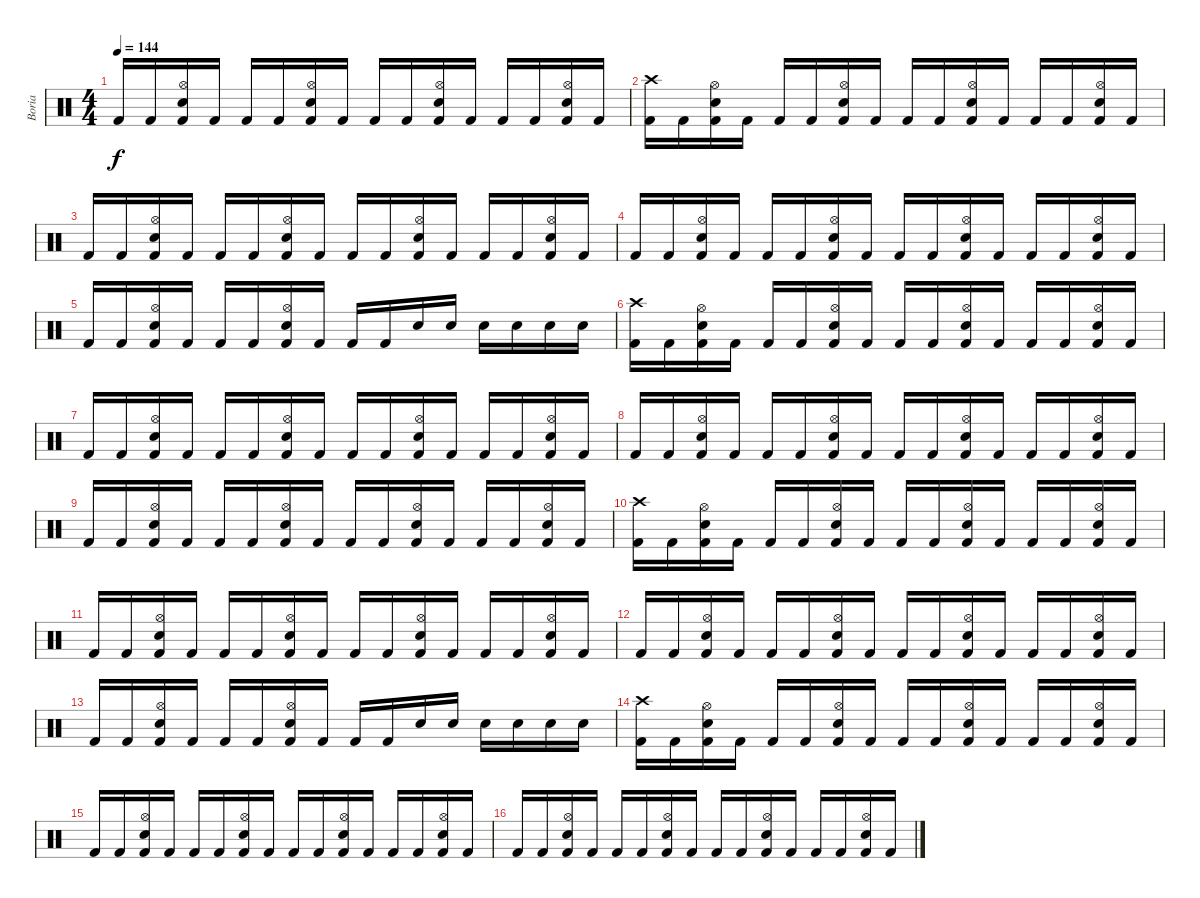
\track ("Boria" "Boria") {instrument percussion}
\staff {score}
\articulation defaults
\ts (4 4)
\tempo 144
\clef neutral
\ks c "Kick (hit) 2".16{dy f} "Kick (hit) 2".16
("Hi-Hat (open)" "Electric Snare (hit)" "Kick (hit) 2").16 "Kick (hit) 2".16 "Kick (hit) 2".16 "Kick (hit) 2".16 ("Hi-Hat (open)" "Electric Snare (hit)" "Kick (hit) 2").16 "Kick (hit) 2".16 "Kick (hit) 2".16 "Kick (hit) 2".16 ("Hi-Hat (open)" "Electric Snare (hit)" "Kick (hit) 2").16 "Kick (hit) 2".16 "Kick (hit) 2".16 "Kick (hit) 2".16 ("Hi-Hat (open)" "Electric Snare (hit)" "Kick (hit) 2").16 "Kick (hit) 2".16 |
("Crash high (hit)" "Kick (hit) 2").16 "Kick (hit) 2".16 ("Hi-Hat (open)" "Electric Snare (hit)" "Kick (hit) 2").16 "Kick (hit) 2".16 "Kick (hit) 2".16 "Kick (hit) 2".16 ("Hi-Hat (open)" "Electric Snare (hit)" "Kick (hit) 2").16 "Kick (hit) 2".16 "Kick (hit) 2".16 "Kick (hit) 2".16 ("Hi-Hat (open)" "Electric Snare (hit)" "Kick (hit) 2").16 "Kick (hit) 2".16 "Kick (hit) 2".16 "Kick (hit) 2".16 ("Hi-Hat (open)" "Electric Snare (hit)" "Kick (hit) 2").16 "Kick (hit) 2".16 |
"Kick (hit) 2".16 "Kick (hit) 2".16 ("Hi-Hat (open)" "Electric Snare (hit)" "Kick (hit) 2").16 "Kick (hit) 2".16 "Kick (hit) 2".16 "Kick (hit) 2".16 ("Hi-Hat (open)" "Electric Snare (hit)" "Kick (hit) 2").16 "Kick (hit) 2".16 "Kick (hit) 2".16 "Kick (hit) 2".16 ("Hi-Hat (open)" "Electric Snare (hit)" "Kick (hit) 2").16 "Kick (hit) 2".16 "Kick (hit) 2".16 "Kick (hit) 2".16 ("Hi-Hat (open)" "Electric Snare (hit)" "Kick (hit) 2").16 "Kick (hit) 2".16 |
"Kick (hit) 2".16 "Kick (hit) 2".16 ("Hi-Hat (open)" "Electric Snare (hit)" "Kick (hit) 2").16 "Kick (hit) 2".16 "Kick (hit) 2".16 "Kick (hit) 2".16 ("Hi-Hat (open)" "Electric Snare (hit)" "Kick (hit) 2").16 "Kick (hit) 2".16 "Kick (hit) 2".16 "Kick (hit) 2".16 ("Hi-Hat (open)" "Electric Snare (hit)" "Kick (hit) 2").16 "Kick (hit) 2".16 "Kick (hit) 2".16 "Kick (hit) 2".16 ("Hi-Hat (open)" "Electric Snare (hit)" "Kick (hit) 2").16 "Kick (hit) 2".16 |
"Kick (hit) 2".16 "Kick (hit) 2".16 ("Hi-Hat (open)" "Electric Snare (hit)" "Kick (hit) 2").16 "Kick (hit) 2".16 "Kick (hit) 2".16 "Kick (hit) 2".16 ("Hi-Hat (open)" "Electric Snare (hit)" "Kick (hit) 2").16 "Kick (hit) 2".16 "Kick (hit) 2".16 "Kick (hit) 2".16 "Electric Snare (hit)".16 "Electric Snare (hit)".16 "Electric Snare (hit)".16 "Electric Snare (hit)".16 "Electric Snare (hit)".16 "Electric Snare (hit)".16 |
("Crash high (hit)" "Kick (hit) 2").16 "Kick (hit) 2".16 ("Hi-Hat (open)" "Electric Snare (hit)" "Kick (hit) 2").16 "Kick (hit) 2".16 "Kick (hit) 2".16 "Kick (hit) 2".16 ("Hi-Hat (open)" "Electric Snare (hit)" "Kick (hit) 2").16 "Kick (hit) 2".16 "Kick (hit) 2".16 "Kick (hit) 2".16 ("Hi-Hat (open)" "Electric Snare (hit)" "Kick (hit) 2").16 "Kick (hit) 2".16 "Kick (hit) 2".16 "Kick (hit) 2".16 ("Hi-Hat (open)" "Electric Snare (hit)" "Kick (hit) 2").16 "Kick (hit) 2".16 |
"Kick (hit) 2".16 "Kick (hit) 2".16 ("Hi-Hat (open)" "Electric Snare (hit)" "Kick (hit) 2").16 "Kick (hit) 2".16 "Kick (hit) 2".16 "Kick (hit) 2".16 ("Hi-Hat (open)" "Electric Snare (hit)" "Kick (hit) 2").16 "Kick (hit) 2".16 "Kick (hit) 2".16 "Kick (hit) 2".16 ("Hi-Hat (open)" "Electric Snare (hit)" "Kick (hit) 2").16 "Kick (hit) 2".16 "Kick (hit) 2".16 "Kick (hit) 2".16 ("Hi-Hat (open)" "Electric Snare (hit)" "Kick (hit) 2").16 "Kick (hit) 2".16 |
"Kick (hit) 2".16 "Kick (hit) 2".16 ("Hi-Hat (open)" "Electric Snare (hit)" "Kick (hit) 2").16 "Kick (hit) 2".16 "Kick (hit) 2".16 "Kick (hit) 2".16 ("Hi-Hat (open)" "Electric Snare (hit)" "Kick (hit) 2").16 "Kick (hit) 2".16 "Kick (hit) 2".16 "Kick (hit) 2".16 ("Hi-Hat (open)" "Electric Snare (hit)" "Kick (hit) 2").16 "Kick (hit) 2".16 "Kick (hit) 2".16 "Kick (hit) 2".16 ("Hi-Hat (open)" "Electric Snare (hit)" "Kick (hit) 2").16 "Kick (hit) 2".16 |
"Kick (hit) 2".16 "Kick (hit) 2".16 ("Hi-Hat (open)" "Electric Snare (hit)" "Kick (hit) 2").16 "Kick (hit) 2".16 "Kick (hit) 2".16 "Kick (hit) 2".16 ("Hi-Hat (open)" "Electric Snare (hit)" "Kick (hit) 2").16 "Kick (hit) 2".16 "Kick (hit) 2".16 "Kick (hit) 2".16 ("Hi-Hat (open)" "Electric Snare (hit)" "Kick (hit) 2").16 "Kick (hit) 2".16 "Kick (hit) 2".16 "Kick (hit) 2".16 ("Hi-Hat (open)" "Electric Snare (hit)" "Kick (hit) 2").16 "Kick (hit) 2".16 |
("Crash high (hit)" "Kick (hit) 2").16 "Kick (hit) 2".16 ("Hi-Hat (open)" "Electric Snare (hit)" "Kick (hit) 2").16 "Kick (hit) 2".16 "Kick (hit) 2".16 "Kick (hit) 2".16 ("Hi-Hat (open)" "Electric Snare (hit)" "Kick (hit) 2").16 "Kick (hit) 2".16 "Kick (hit) 2".16 "Kick (hit) 2".16 ("Hi-Hat (open)" "Electric Snare (hit)" "Kick (hit) 2").16 "Kick (hit) 2".16 "Kick (hit) 2".16 "Kick (hit) 2".16 ("Hi-Hat (open)" "Electric Snare (hit)" "Kick (hit) 2").16 "Kick (hit) 2".16 |
"Kick (hit) 2".16 "Kick (hit) 2".16 ("Hi-Hat (open)" "Electric Snare (hit)" "Kick (hit) 2").16 "Kick (hit) 2".16 "Kick (hit) 2".16 "Kick (hit) 2".16 ("Hi-Hat (open)" "Electric Snare (hit)" "Kick (hit) 2").16 "Kick (hit) 2".16 "Kick (hit) 2".16 "Kick (hit) 2".16 ("Hi-Hat (open)" "Electric Snare (hit)" "Kick (hit) 2").16 "Kick (hit) 2".16 "Kick (hit) 2".16 "Kick (hit) 2".16 ("Hi-Hat (open)" "Electric Snare (hit)" "Kick (hit) 2").16 "Kick (hit) 2".16 |
"Kick (hit) 2".16 "Kick (hit) 2".16 ("Hi-Hat (open)" "Electric Snare (hit)" "Kick (hit) 2").16 "Kick (hit) 2".16 "Kick (hit) 2".16 "Kick (hit) 2".16 ("Hi-Hat (open)" "Electric Snare (hit)" "Kick (hit) 2").16 "Kick (hit) 2".16 "Kick (hit) 2".16 "Kick (hit) 2".16 ("Hi-Hat (open)" "Electric Snare (hit)" "Kick (hit) 2").16 "Kick (hit) 2".16 "Kick (hit) 2".16 "Kick (hit) 2".16 ("Hi-Hat (open)" "Electric Snare (hit)" "Kick (hit) 2").16 "Kick (hit) 2".16 |
"Kick (hit) 2".16 "Kick (hit) 2".16 ("Hi-Hat (open)" "Electric Snare (hit)" "Kick (hit) 2").16 "Kick (hit) 2".16 "Kick (hit) 2".16 "Kick (hit) 2".16 ("Hi-Hat (open)" "Electric Snare (hit)" "Kick (hit) 2").16 "Kick (hit) 2".16 "Kick (hit) 2".16 "Kick (hit) 2".16 "Electric Snare (hit)".16 "Electric Snare (hit)".16 "Electric Snare (hit)".16 "Electric Snare (hit)".16 "Electric Snare (hit)".16 "Electric Snare (hit)".16 |
("Crash high (hit)" "Kick (hit) 2").16 "Kick (hit) 2".16 ("Hi-Hat (open)" "Electric Snare (hit)" "Kick (hit) 2").16 "Kick (hit) 2".16 "Kick (hit) 2".16 "Kick (hit) 2".16 ("Hi-Hat (open)" "Electric Snare (hit)" "Kick (hit) 2").16 "Kick (hit) 2".16 "Kick (hit) 2".16 "Kick (hit) 2".16 ("Hi-Hat (open)" "Electric Snare (hit)" "Kick (hit) 2").16 "Kick (hit) 2".16 "Kick (hit) 2".16 "Kick (hit) 2".16 ("Hi-Hat (open)" "Electric Snare (hit)" "Kick (hit) 2").16 "Kick (hit) 2".16 |
"Kick (hit) 2".16 "Kick (hit) 2".16 ("Hi-Hat (open)" "Electric Snare (hit)" "Kick (hit) 2").16 "Kick (hit) 2".16 "Kick (hit) 2".16 "Kick (hit) 2".16 ("Hi-Hat (open)" "Electric Snare (hit)" "Kick (hit) 2").16 "Kick (hit) 2".16 "Kick (hit) 2".16 "Kick (hit) 2".16 ("Hi-Hat (open)" "Electric Snare (hit)" "Kick (hit) 2").16 "Kick (hit) 2".16 "Kick (hit) 2".16 "Kick (hit) 2".16 ("Hi-Hat (open)" "Electric Snare (hit)" "Kick (hit) 2").16 "Kick (hit) 2".16 |
"Kick (hit) 2".16 "Kick (hit) 2".16 ("Hi-Hat (open)" "Electric Snare (hit)" "Kick (hit) 2").16 "Kick (hit) 2".16 "Kick (hit) 2".16 "Kick (hit) 2".16 ("Hi-Hat (open)" "Electric Snare (hit)" "Kick (hit) 2").16 "Kick (hit) 2".16 "Kick (hit) 2".16 "Kick (hit) 2".16 ("Hi-Hat (open)" "Electric Snare (hit)" "Kick (hit) 2").16 "Kick (hit) 2".16 "Kick (hit) 2".16 "Kick (hit) 2".16 ("Hi-Hat (open)" "Electric Snare (hit)" "Kick (hit) 2").16 "Kick (hit) 2".16
